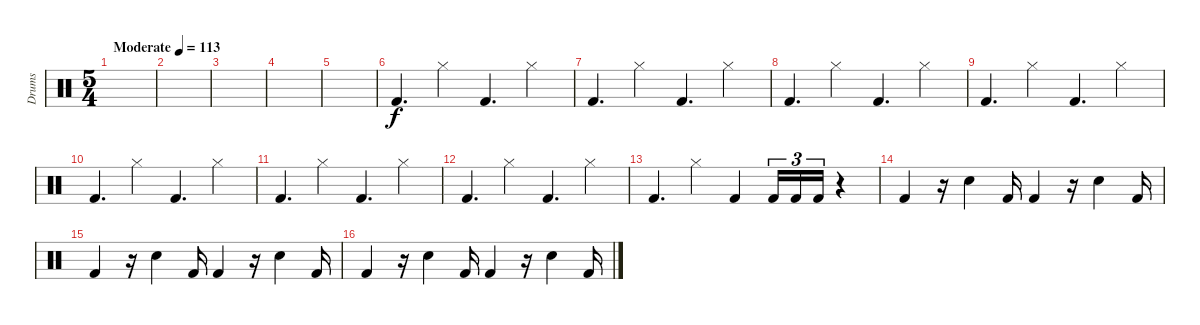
\track ("Drums" "Drums") {instrument percussion}
\staff {score}
\articulation defaults
\ts (5 4)
\tempo (113 "Moderate")
\clef neutral
\ks c
|
|
|
|
|
"Kick (hit) 2".4{d} "Hi-Hat (closed)".4 "Kick (hit) 2".4{d} "Hi-Hat (closed)".4 |
"Kick (hit) 2".4{d} "Hi-Hat (closed)".4 "Kick (hit) 2".4{d} "Hi-Hat (closed)".4 |
"Kick (hit) 2".4{d} "Hi-Hat (closed)".4 "Kick (hit) 2".4{d} "Hi-Hat (closed)".4 |
"Kick (hit) 2".4{d} "Hi-Hat (closed)".4 "Kick (hit) 2".4{d} "Hi-Hat (closed)".4 |
"Kick (hit) 2".4{d} "Hi-Hat (closed)".4 "Kick (hit) 2".4{d} "Hi-Hat (closed)".4 |
"Kick (hit) 2".4{d} "Hi-Hat (closed)".4 "Kick (hit) 2".4{d} "Hi-Hat (closed)".4 |
"Kick (hit) 2".4{d} "Hi-Hat (closed)".4 "Kick (hit) 2".4{d} "Hi-Hat (closed)".4 |
"Kick (hit) 2".4{d} "Hi-Hat (closed)".4 "Kick (hit) 2".4 "Kick (hit) 2".16{tu (3 2)} "Kick (hit) 2".16{tu (3 2)} "Kick (hit) 2".16{tu (3 2)} r.4 |
"Kick (hit) 2".4 r.16 "Electric Snare (hit)".4 "Kick (hit) 2".16 "Kick (hit) 2".4 r.16 "Electric Snare (hit)".4 "Kick (hit) 2".16 |
"Kick (hit) 2".4 r.16 "Electric Snare (hit)".4 "Kick (hit) 2".16 "Kick (hit) 2".4 r.16 "Electric Snare (hit)".4 "Kick (hit) 2".16 |
"Kick (hit) 2".4 r.16 "Electric Snare (hit)".4 "Kick (hit) 2".16 "Kick (hit) 2".4 r.16 "Electric Snare (hit)".4 "Kick (hit) 2".16
